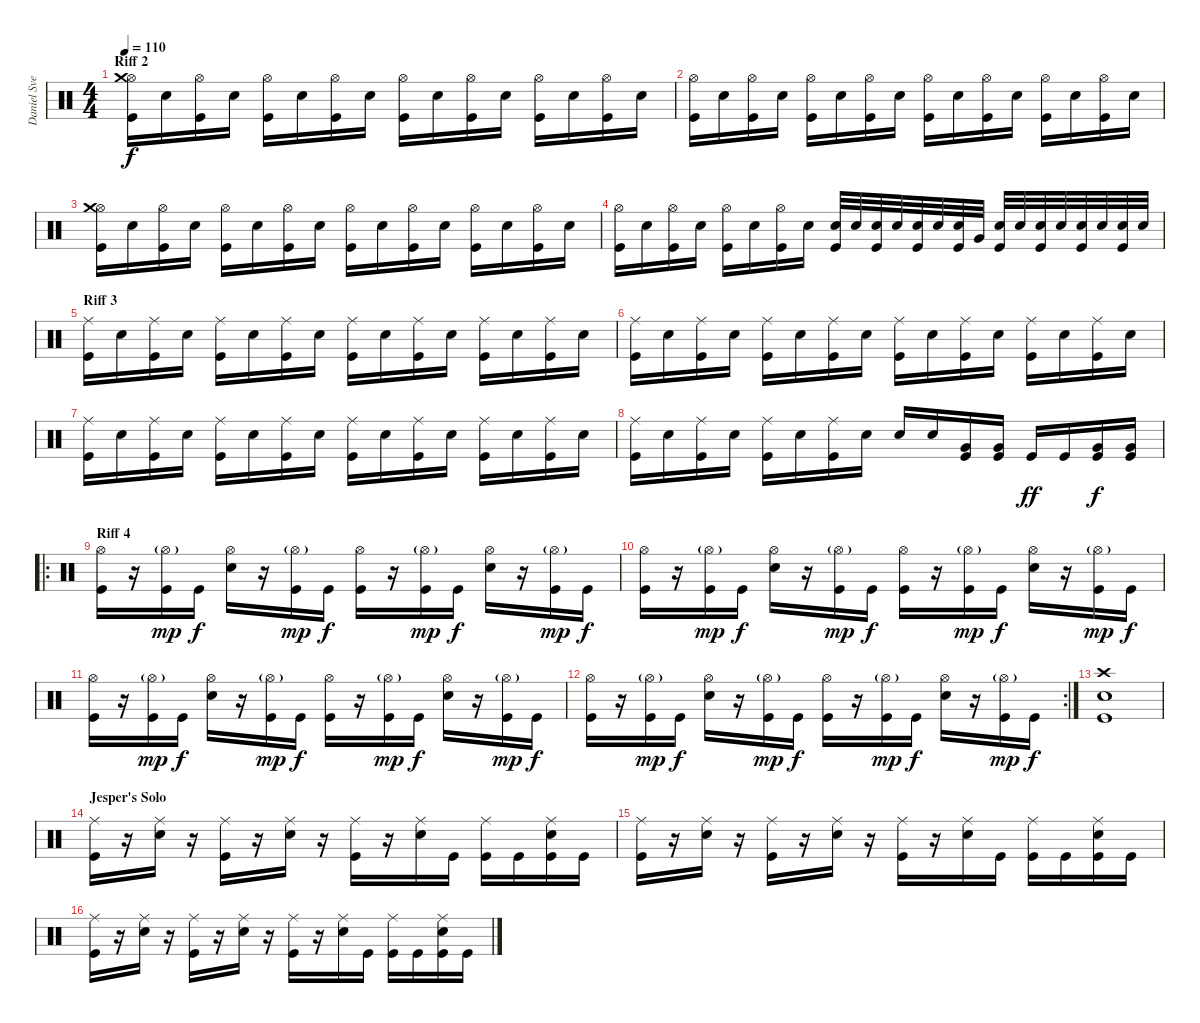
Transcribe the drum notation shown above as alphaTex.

\track ("Daniel Svensson" "Daniel Sve") {instrument percussion}
\staff {score}
\articulation defaults
\ts (4 4)
\section ("" "Riff 2")
\tempo 110
\clef neutral
\ks c
("Hi-Hat (open)" "Crash medium (hit)" "Kick (hit)").16{dy f} "Electric Snare (hit)".16 ("Hi-Hat (open)" "Kick (hit)").16 "Electric Snare (hit)".16 ("Hi-Hat (open)" "Kick (hit)").16 "Electric Snare (hit)".16 ("Hi-Hat (open)" "Kick (hit)").16 "Electric Snare (hit)".16 ("Hi-Hat (open)" "Kick (hit)").16 "Electric Snare (hit)".16 ("Hi-Hat (open)" "Kick (hit)").16 "Electric Snare (hit)".16 ("Hi-Hat (open)" "Kick (hit)").16 "Electric Snare (hit)".16 ("Hi-Hat (open)" "Kick (hit)").16 "Electric Snare (hit)".16 |
("Hi-Hat (open)" "Kick (hit)").16 "Electric Snare (hit)".16 ("Hi-Hat (open)" "Kick (hit)").16 "Electric Snare (hit)".16 ("Hi-Hat (open)" "Kick (hit)").16 "Electric Snare (hit)".16 ("Hi-Hat (open)" "Kick (hit)").16 "Electric Snare (hit)".16 ("Hi-Hat (open)" "Kick (hit)").16 "Electric Snare (hit)".16 ("Hi-Hat (open)" "Kick (hit)").16 "Electric Snare (hit)".16 ("Hi-Hat (open)" "Kick (hit)").16 "Electric Snare (hit)".16 ("Hi-Hat (open)" "Kick (hit)").16 "Electric Snare (hit)".16 |
("Hi-Hat (open)" "Crash medium (hit)" "Kick (hit)").16 "Electric Snare (hit)".16 ("Hi-Hat (open)" "Kick (hit)").16 "Electric Snare (hit)".16 ("Hi-Hat (open)" "Kick (hit)").16 "Electric Snare (hit)".16 ("Hi-Hat (open)" "Kick (hit)").16 "Electric Snare (hit)".16 ("Hi-Hat (open)" "Kick (hit)").16 "Electric Snare (hit)".16 ("Hi-Hat (open)" "Kick (hit)").16 "Electric Snare (hit)".16 ("Hi-Hat (open)" "Kick (hit)").16 "Electric Snare (hit)".16 ("Hi-Hat (open)" "Kick (hit)").16 "Electric Snare (hit)".16 |
("Hi-Hat (open)" "Kick (hit)").16 "Electric Snare (hit)".16 ("Hi-Hat (open)" "Kick (hit)").16 "Electric Snare (hit)".16 ("Hi-Hat (open)" "Kick (hit)").16 "Electric Snare (hit)".16 ("Hi-Hat (open)" "Kick (hit)").16 "Electric Snare (hit)".16 ("Electric Snare (hit)" "Kick (hit)").32 "Electric Snare (hit)".32 ("Electric Snare (hit)" "Kick (hit)").32 "Electric Snare (hit)".32 ("Electric Snare (hit)" "Kick (hit)").32 "Electric Snare (hit)".32 ("Electric Snare (hit)" "Kick (hit)").32 "Very Low Tom (hit)".32 ("Snare (hit) 2" "Kick (hit)").32 "Snare (hit) 2".32 ("Snare (hit) 2" "Kick (hit)").32 "Snare (hit) 2".32 ("Snare (hit) 2" "Kick (hit)").32 "Snare (hit) 2".32 ("Snare (hit) 2" "Kick (hit)").32 "Snare (hit) 2".32 |
\section ("" "Riff 3")
("Ride (middle)" "Kick (hit)").16 "Electric Snare (hit)".16 ("Ride (middle)" "Kick (hit)").16 "Electric Snare (hit)".16 ("Ride (middle)" "Kick (hit)").16 "Electric Snare (hit)".16 ("Ride (middle)" "Kick (hit)").16 "Electric Snare (hit)".16 ("Ride (middle)" "Kick (hit)").16 "Electric Snare (hit)".16 ("Ride (middle)" "Kick (hit)").16 "Electric Snare (hit)".16 ("Ride (middle)" "Kick (hit)").16 "Electric Snare (hit)".16 ("Ride (middle)" "Kick (hit)").16 "Electric Snare (hit)".16 |
("Ride (middle)" "Kick (hit)").16 "Electric Snare (hit)".16 ("Ride (middle)" "Kick (hit)").16 "Electric Snare (hit)".16 ("Ride (middle)" "Kick (hit)").16 "Electric Snare (hit)".16 ("Ride (middle)" "Kick (hit)").16 "Electric Snare (hit)".16 ("Ride (middle)" "Kick (hit)").16 "Electric Snare (hit)".16 ("Ride (middle)" "Kick (hit)").16 "Electric Snare (hit)".16 ("Ride (middle)" "Kick (hit)").16 "Electric Snare (hit)".16 ("Ride (middle)" "Kick (hit)").16 "Electric Snare (hit)".16 |
("Ride (middle)" "Kick (hit)").16 "Electric Snare (hit)".16 ("Ride (middle)" "Kick (hit)").16 "Electric Snare (hit)".16 ("Ride (middle)" "Kick (hit)").16 "Electric Snare (hit)".16 ("Ride (middle)" "Kick (hit)").16 "Electric Snare (hit)".16 ("Ride (middle)" "Kick (hit)").16 "Electric Snare (hit)".16 ("Ride (middle)" "Kick (hit)").16 "Electric Snare (hit)".16 ("Ride (middle)" "Kick (hit)").16 "Electric Snare (hit)".16 ("Ride (middle)" "Kick (hit)").16 "Electric Snare (hit)".16 |
("Ride (middle)" "Kick (hit)").16 "Electric Snare (hit)".16 ("Ride (middle)" "Kick (hit)").16 "Electric Snare (hit)".16 ("Ride (middle)" "Kick (hit)").16 "Electric Snare (hit)".16 ("Ride (middle)" "Kick (hit)").16 "Electric Snare (hit)".16 "Electric Snare (hit)".16 "Electric Snare (hit)".16 ("Very Low Tom (hit)" "Kick (hit)").16 ("Very Low Tom (hit)" "Kick (hit)").16 "Kick (hit)".16{dy ff} "Kick (hit)".16 ("Very Low Tom (hit)" "Kick (hit)").16{dy f} ("Very Low Tom (hit)" "Kick (hit)").16 |
\ro
\section ("" "Riff 4")
("Hi-Hat (open)" "Kick (hit)").16 r.16 ("Hi-Hat (open)"{g} "Kick (hit)").16{dy mp} "Kick (hit)".16{dy f} ("Hi-Hat (open)" "Electric Snare (hit)").16 r.16 ("Hi-Hat (open)"{g} "Kick (hit)").16{dy mp} "Kick (hit)".16{dy f} ("Hi-Hat (open)" "Kick (hit)").16 r.16 ("Hi-Hat (open)"{g} "Kick (hit)").16{dy mp} "Kick (hit)".16{dy f} ("Hi-Hat (open)" "Electric Snare (hit)").16 r.16 ("Hi-Hat (open)"{g} "Kick (hit)").16{dy mp} "Kick (hit)".16{dy f} |
("Hi-Hat (open)" "Kick (hit)").16 r.16 ("Hi-Hat (open)"{g} "Kick (hit)").16{dy mp} "Kick (hit)".16{dy f} ("Hi-Hat (open)" "Electric Snare (hit)").16 r.16 ("Hi-Hat (open)"{g} "Kick (hit)").16{dy mp} "Kick (hit)".16{dy f} ("Hi-Hat (open)" "Kick (hit)").16 r.16 ("Hi-Hat (open)"{g} "Kick (hit)").16{dy mp} "Kick (hit)".16{dy f} ("Hi-Hat (open)" "Electric Snare (hit)").16 r.16 ("Hi-Hat (open)"{g} "Kick (hit)").16{dy mp} "Kick (hit)".16{dy f} |
("Hi-Hat (open)" "Kick (hit)").16 r.16 ("Hi-Hat (open)"{g} "Kick (hit)").16{dy mp} "Kick (hit)".16{dy f} ("Hi-Hat (open)" "Electric Snare (hit)").16 r.16 ("Hi-Hat (open)"{g} "Kick (hit)").16{dy mp} "Kick (hit)".16{dy f} ("Hi-Hat (open)" "Kick (hit)").16 r.16 ("Hi-Hat (open)"{g} "Kick (hit)").16{dy mp} "Kick (hit)".16{dy f} ("Hi-Hat (open)" "Electric Snare (hit)").16 r.16 ("Hi-Hat (open)"{g} "Kick (hit)").16{dy mp} "Kick (hit)".16{dy f} |
\rc 2
("Hi-Hat (open)" "Kick (hit)").16 r.16 ("Hi-Hat (open)"{g} "Kick (hit)").16{dy mp} "Kick (hit)".16{dy f} ("Hi-Hat (open)" "Electric Snare (hit)").16 r.16 ("Hi-Hat (open)"{g} "Kick (hit)").16{dy mp} "Kick (hit)".16{dy f} ("Hi-Hat (open)" "Kick (hit)").16 r.16 ("Hi-Hat (open)"{g} "Kick (hit)").16{dy mp} "Kick (hit)".16{dy f} ("Hi-Hat (open)" "Electric Snare (hit)").16 r.16 ("Hi-Hat (open)"{g} "Kick (hit)").16{dy mp} "Kick (hit)".16{dy f} |
\section ("" "")
("Crash high (hit)" "Electric Snare (hit)" "Kick (hit)").1 |
\section ("" "Jesper's Solo")
("Ride (middle)" "Kick (hit)").16 r.16 ("Ride (middle)" "Electric Snare (hit)").16 r.16 ("Ride (middle)" "Kick (hit)").16 r.16 ("Ride (middle)" "Electric Snare (hit)").16 r.16 ("Ride (middle)" "Kick (hit)").16 r.16 ("Ride (middle)" "Electric Snare (hit)").16 "Kick (hit)".16 ("Ride (middle)" "Kick (hit)").16 "Kick (hit)".16 ("Ride (middle)" "Electric Snare (hit)" "Kick (hit)").16 "Kick (hit)".16 |
("Ride (middle)" "Kick (hit)").16 r.16 ("Ride (middle)" "Electric Snare (hit)").16 r.16 ("Ride (middle)" "Kick (hit)").16 r.16 ("Ride (middle)" "Electric Snare (hit)").16 r.16 ("Ride (middle)" "Kick (hit)").16 r.16 ("Ride (middle)" "Electric Snare (hit)").16 "Kick (hit)".16 ("Ride (middle)" "Kick (hit)").16 "Kick (hit)".16 ("Ride (middle)" "Electric Snare (hit)" "Kick (hit)").16 "Kick (hit)".16 |
("Ride (middle)" "Kick (hit)").16 r.16 ("Ride (middle)" "Electric Snare (hit)").16 r.16 ("Ride (middle)" "Kick (hit)").16 r.16 ("Ride (middle)" "Electric Snare (hit)").16 r.16 ("Ride (middle)" "Kick (hit)").16 r.16 ("Ride (middle)" "Electric Snare (hit)").16 "Kick (hit)".16 ("Ride (middle)" "Kick (hit)").16 "Kick (hit)".16 ("Ride (middle)" "Electric Snare (hit)" "Kick (hit)").16 "Kick (hit)".16
